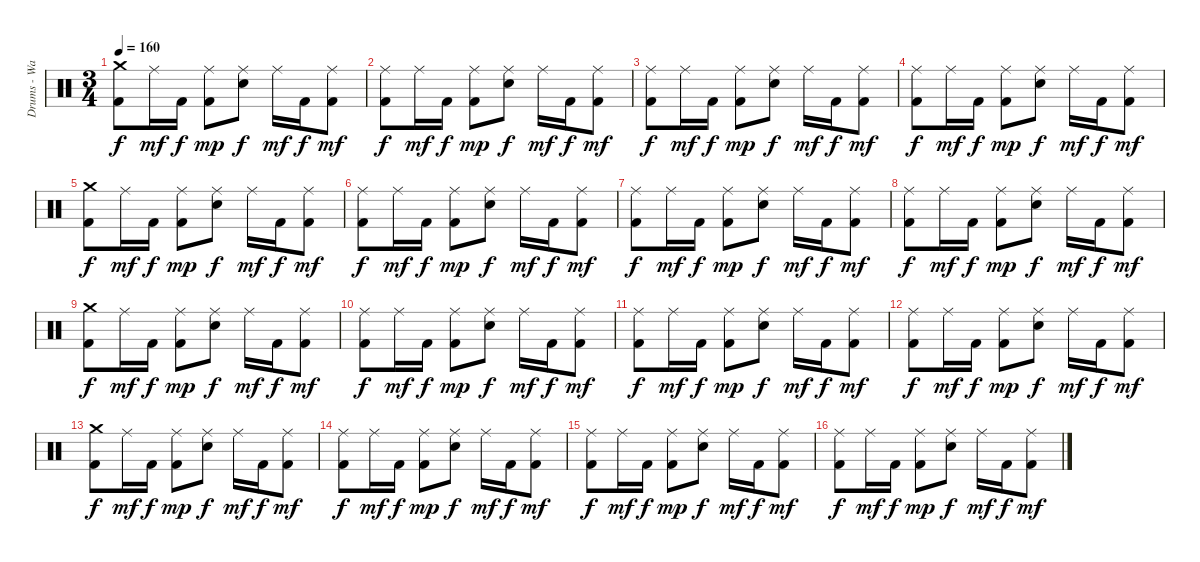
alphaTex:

\track ("Drums - Ward" "Drums - Wa") {instrument percussion}
\staff {score}
\articulation defaults
\ts (3 4)
\tempo 160
\clef neutral
\ks c
("Crash medium (hit)" "Kick (hit) 2").8{dy f} "Ride (middle)".16{dy mf} "Kick (hit) 2".16{dy f} ("Ride (middle)" "Kick (hit) 2").8{dy mp} ("Ride (middle)" "Electric Snare (hit)").8{dy f} "Ride (middle)".16{dy mf} "Kick (hit) 2".16{dy f} ("Ride (middle)" "Kick (hit) 2").8{dy mf} |
("Ride (middle)" "Kick (hit) 2").8{dy f} "Ride (middle)".16{dy mf} "Kick (hit) 2".16{dy f} ("Ride (middle)" "Kick (hit) 2").8{dy mp} ("Ride (middle)" "Electric Snare (hit)").8{dy f} "Ride (middle)".16{dy mf} "Kick (hit) 2".16{dy f} ("Ride (middle)" "Kick (hit) 2").8{dy mf} |
("Ride (middle)" "Kick (hit) 2").8{dy f} "Ride (middle)".16{dy mf} "Kick (hit) 2".16{dy f} ("Ride (middle)" "Kick (hit) 2").8{dy mp} ("Ride (middle)" "Electric Snare (hit)").8{dy f} "Ride (middle)".16{dy mf} "Kick (hit) 2".16{dy f} ("Ride (middle)" "Kick (hit) 2").8{dy mf} |
("Ride (middle)" "Kick (hit) 2").8{dy f} "Ride (middle)".16{dy mf} "Kick (hit) 2".16{dy f} ("Ride (middle)" "Kick (hit) 2").8{dy mp} ("Ride (middle)" "Electric Snare (hit)").8{dy f} "Ride (middle)".16{dy mf} "Kick (hit) 2".16{dy f} ("Ride (middle)" "Kick (hit) 2").8{dy mf} |
("Crash medium (hit)" "Kick (hit) 2").8{dy f} "Ride (middle)".16{dy mf} "Kick (hit) 2".16{dy f} ("Ride (middle)" "Kick (hit) 2").8{dy mp} ("Ride (middle)" "Electric Snare (hit)").8{dy f} "Ride (middle)".16{dy mf} "Kick (hit) 2".16{dy f} ("Ride (middle)" "Kick (hit) 2").8{dy mf} |
("Ride (middle)" "Kick (hit) 2").8{dy f} "Ride (middle)".16{dy mf} "Kick (hit) 2".16{dy f} ("Ride (middle)" "Kick (hit) 2").8{dy mp} ("Ride (middle)" "Electric Snare (hit)").8{dy f} "Ride (middle)".16{dy mf} "Kick (hit) 2".16{dy f} ("Ride (middle)" "Kick (hit) 2").8{dy mf} |
("Ride (middle)" "Kick (hit) 2").8{dy f} "Ride (middle)".16{dy mf} "Kick (hit) 2".16{dy f} ("Ride (middle)" "Kick (hit) 2").8{dy mp} ("Ride (middle)" "Electric Snare (hit)").8{dy f} "Ride (middle)".16{dy mf} "Kick (hit) 2".16{dy f} ("Ride (middle)" "Kick (hit) 2").8{dy mf} |
("Ride (middle)" "Kick (hit) 2").8{dy f} "Ride (middle)".16{dy mf} "Kick (hit) 2".16{dy f} ("Ride (middle)" "Kick (hit) 2").8{dy mp} ("Ride (middle)" "Electric Snare (hit)").8{dy f} "Ride (middle)".16{dy mf} "Kick (hit) 2".16{dy f} ("Ride (middle)" "Kick (hit) 2").8{dy mf} |
("Crash medium (hit)" "Kick (hit) 2").8{dy f} "Ride (middle)".16{dy mf} "Kick (hit) 2".16{dy f} ("Ride (middle)" "Kick (hit) 2").8{dy mp} ("Ride (middle)" "Electric Snare (hit)").8{dy f} "Ride (middle)".16{dy mf} "Kick (hit) 2".16{dy f} ("Ride (middle)" "Kick (hit) 2").8{dy mf} |
("Ride (middle)" "Kick (hit) 2").8{dy f} "Ride (middle)".16{dy mf} "Kick (hit) 2".16{dy f} ("Ride (middle)" "Kick (hit) 2").8{dy mp} ("Ride (middle)" "Electric Snare (hit)").8{dy f} "Ride (middle)".16{dy mf} "Kick (hit) 2".16{dy f} ("Ride (middle)" "Kick (hit) 2").8{dy mf} |
("Ride (middle)" "Kick (hit) 2").8{dy f} "Ride (middle)".16{dy mf} "Kick (hit) 2".16{dy f} ("Ride (middle)" "Kick (hit) 2").8{dy mp} ("Ride (middle)" "Electric Snare (hit)").8{dy f} "Ride (middle)".16{dy mf} "Kick (hit) 2".16{dy f} ("Ride (middle)" "Kick (hit) 2").8{dy mf} |
("Ride (middle)" "Kick (hit) 2").8{dy f} "Ride (middle)".16{dy mf} "Kick (hit) 2".16{dy f} ("Ride (middle)" "Kick (hit) 2").8{dy mp} ("Ride (middle)" "Electric Snare (hit)").8{dy f} "Ride (middle)".16{dy mf} "Kick (hit) 2".16{dy f} ("Ride (middle)" "Kick (hit) 2").8{dy mf} |
("Crash medium (hit)" "Kick (hit) 2").8{dy f} "Ride (middle)".16{dy mf} "Kick (hit) 2".16{dy f} ("Ride (middle)" "Kick (hit) 2").8{dy mp} ("Ride (middle)" "Electric Snare (hit)").8{dy f} "Ride (middle)".16{dy mf} "Kick (hit) 2".16{dy f} ("Ride (middle)" "Kick (hit) 2").8{dy mf} |
("Ride (middle)" "Kick (hit) 2").8{dy f} "Ride (middle)".16{dy mf} "Kick (hit) 2".16{dy f} ("Ride (middle)" "Kick (hit) 2").8{dy mp} ("Ride (middle)" "Electric Snare (hit)").8{dy f} "Ride (middle)".16{dy mf} "Kick (hit) 2".16{dy f} ("Ride (middle)" "Kick (hit) 2").8{dy mf} |
("Ride (middle)" "Kick (hit) 2").8{dy f} "Ride (middle)".16{dy mf} "Kick (hit) 2".16{dy f} ("Ride (middle)" "Kick (hit) 2").8{dy mp} ("Ride (middle)" "Electric Snare (hit)").8{dy f} "Ride (middle)".16{dy mf} "Kick (hit) 2".16{dy f} ("Ride (middle)" "Kick (hit) 2").8{dy mf} |
("Ride (middle)" "Kick (hit) 2").8{dy f} "Ride (middle)".16{dy mf} "Kick (hit) 2".16{dy f} ("Ride (middle)" "Kick (hit) 2").8{dy mp} ("Ride (middle)" "Electric Snare (hit)").8{dy f} "Ride (middle)".16{dy mf} "Kick (hit) 2".16{dy f} ("Ride (middle)" "Kick (hit) 2").8{dy mf}
